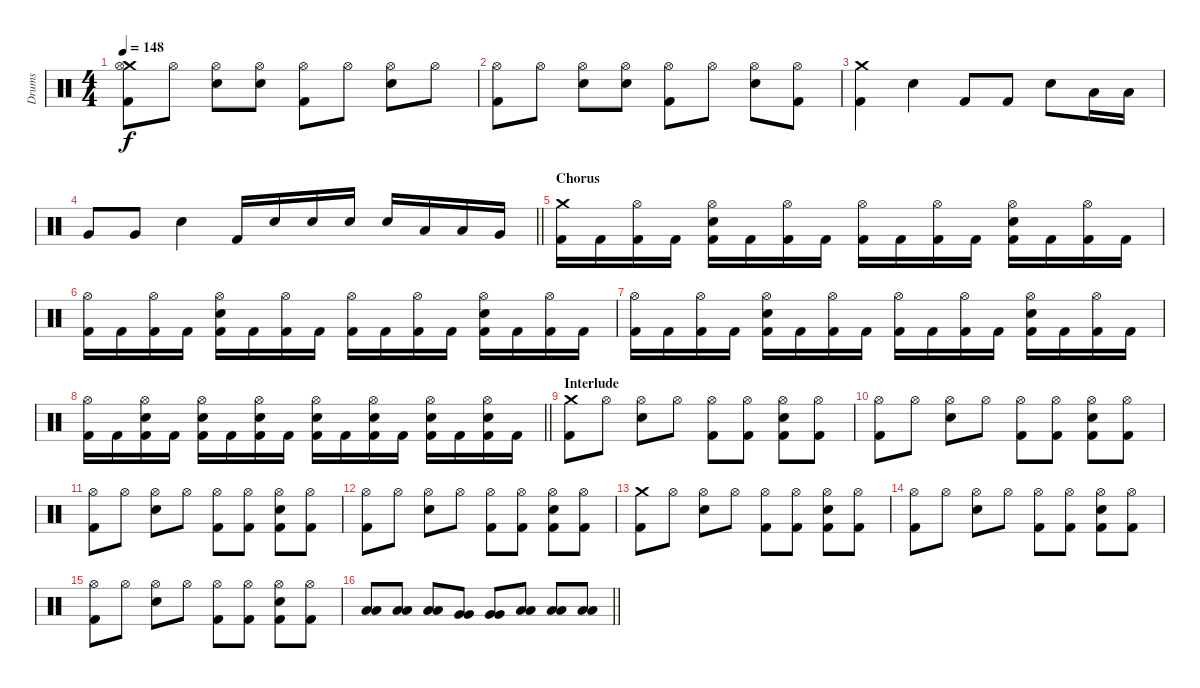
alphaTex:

\track ("Drums" "Drums") {instrument percussion}
\staff {score}
\articulation defaults
\ts (4 4)
\tempo 148
\clef neutral
\ks c
("Crash medium (hit)" "Hi-Hat (open)" "Kick (hit) 2").8{dy f} "Hi-Hat (open)".8 ("Hi-Hat (open)" "Snare (hit) 2").8 ("Hi-Hat (open)" "Snare (hit) 2").8 ("Hi-Hat (open)" "Kick (hit) 2").8 "Hi-Hat (open)".8 ("Hi-Hat (open)" "Snare (hit) 2").8 "Hi-Hat (open)".8 |
("Hi-Hat (open)" "Kick (hit) 2").8 "Hi-Hat (open)".8 ("Hi-Hat (open)" "Snare (hit) 2").8 ("Hi-Hat (open)" "Snare (hit) 2").8 ("Hi-Hat (open)" "Kick (hit) 2").8 "Hi-Hat (open)".8 ("Hi-Hat (open)" "Snare (hit) 2").8 ("Hi-Hat (open)" "Kick (hit) 2").8 |
("Crash medium (hit)" "Kick (hit) 2").4 "Snare (hit) 2".4 "Kick (hit) 2".8 "Kick (hit) 2".8 "Snare (hit) 2".8 "Low Tom (hit)".16 "Low Tom (hit)".16 |
\barLineRight lightlight "Very Low Tom (hit)".8 "Very Low Tom (hit)".8 "Snare (hit) 2".4 "Kick (hit) 2".16 "Snare (hit) 2".16 "Snare (hit) 2".16 "Snare (hit) 2".16 "Snare (hit) 2".16 "Low Tom (hit)".16 "Low Tom (hit)".16 "Very Low Tom (hit)".16
|
\section ("" "Chorus")
("Crash medium (hit)" "Kick (hit) 2").16 "Kick (hit) 2".16 ("Hi-Hat (open)" "Kick (hit) 2").16 "Kick (hit) 2".16 ("Hi-Hat (open)" "Snare (hit) 2" "Kick (hit) 2").16 "Kick (hit) 2".16 ("Hi-Hat (open)" "Kick (hit) 2").16 "Kick (hit) 2".16 ("Hi-Hat (open)" "Kick (hit) 2").16 "Kick (hit) 2".16 ("Hi-Hat (open)" "Kick (hit) 2").16 "Kick (hit) 2".16 ("Hi-Hat (open)" "Snare (hit) 2" "Kick (hit) 2").16 "Kick (hit) 2".16 ("Hi-Hat (open)" "Kick (hit) 2").16 "Kick (hit) 2".16 |
("Hi-Hat (open)" "Kick (hit) 2").16 "Kick (hit) 2".16 ("Hi-Hat (open)" "Kick (hit) 2").16 "Kick (hit) 2".16 ("Hi-Hat (open)" "Snare (hit) 2" "Kick (hit) 2").16 "Kick (hit) 2".16 ("Hi-Hat (open)" "Kick (hit) 2").16 "Kick (hit) 2".16 ("Hi-Hat (open)" "Kick (hit) 2").16 "Kick (hit) 2".16 ("Hi-Hat (open)" "Kick (hit) 2").16 "Kick (hit) 2".16 ("Hi-Hat (open)" "Snare (hit) 2" "Kick (hit) 2").16 "Kick (hit) 2".16 ("Hi-Hat (open)" "Kick (hit) 2").16 "Kick (hit) 2".16 |
("Hi-Hat (open)" "Kick (hit) 2").16 "Kick (hit) 2".16 ("Hi-Hat (open)" "Kick (hit) 2").16 "Kick (hit) 2".16 ("Hi-Hat (open)" "Snare (hit) 2" "Kick (hit) 2").16 "Kick (hit) 2".16 ("Hi-Hat (open)" "Kick (hit) 2").16 "Kick (hit) 2".16 ("Hi-Hat (open)" "Kick (hit) 2").16 "Kick (hit) 2".16 ("Hi-Hat (open)" "Kick (hit) 2").16 "Kick (hit) 2".16 ("Hi-Hat (open)" "Snare (hit) 2" "Kick (hit) 2").16 "Kick (hit) 2".16 ("Hi-Hat (open)" "Kick (hit) 2").16 "Kick (hit) 2".16 |
\barLineRight lightlight
("Hi-Hat (open)" "Kick (hit) 2").16 "Kick (hit) 2".16 ("Hi-Hat (open)" "Snare (hit) 2" "Kick (hit) 2").16 "Kick (hit) 2".16 ("Hi-Hat (open)" "Snare (hit) 2" "Kick (hit) 2").16 "Kick (hit) 2".16 ("Hi-Hat (open)" "Snare (hit) 2" "Kick (hit) 2").16 "Kick (hit) 2".16 ("Hi-Hat (open)" "Snare (hit) 2" "Kick (hit) 2").16 "Kick (hit) 2".16 ("Hi-Hat (open)" "Snare (hit) 2" "Kick (hit) 2").16 "Kick (hit) 2".16 ("Hi-Hat (open)" "Snare (hit) 2" "Kick (hit) 2").16 "Kick (hit) 2".16 ("Hi-Hat (open)" "Snare (hit) 2" "Kick (hit) 2").16 "Kick (hit) 2".16 |
\section ("" "Interlude")
("Crash medium (hit)" "Kick (hit) 2").8 "Hi-Hat (open)".8 ("Hi-Hat (open)" "Snare (hit) 2").8 "Hi-Hat (open)".8 ("Hi-Hat (open)" "Kick (hit) 2").8 ("Hi-Hat (open)" "Kick (hit) 2").8 ("Hi-Hat (open)" "Snare (hit) 2" "Kick (hit) 2").8 ("Hi-Hat (open)" "Kick (hit) 2").8 |
("Hi-Hat (open)" "Kick (hit) 2").8 "Hi-Hat (open)".8 ("Hi-Hat (open)" "Snare (hit) 2").8 "Hi-Hat (open)".8 ("Hi-Hat (open)" "Kick (hit) 2").8 ("Hi-Hat (open)" "Kick (hit) 2").8 ("Hi-Hat (open)" "Snare (hit) 2" "Kick (hit) 2").8 ("Hi-Hat (open)" "Kick (hit) 2").8 |
("Hi-Hat (open)" "Kick (hit) 2").8 "Hi-Hat (open)".8 ("Hi-Hat (open)" "Snare (hit) 2").8 "Hi-Hat (open)".8 ("Hi-Hat (open)" "Kick (hit) 2").8 ("Hi-Hat (open)" "Kick (hit) 2").8 ("Hi-Hat (open)" "Snare (hit) 2" "Kick (hit) 2").8 ("Hi-Hat (open)" "Kick (hit) 2").8 |
("Hi-Hat (open)" "Kick (hit) 2").8 "Hi-Hat (open)".8 ("Hi-Hat (open)" "Snare (hit) 2").8 "Hi-Hat (open)".8 ("Hi-Hat (open)" "Kick (hit) 2").8 ("Hi-Hat (open)" "Kick (hit) 2").8 ("Hi-Hat (open)" "Snare (hit) 2" "Kick (hit) 2").8 ("Hi-Hat (open)" "Kick (hit) 2").8 |
("Crash medium (hit)" "Kick (hit) 2").8 "Hi-Hat (open)".8 ("Hi-Hat (open)" "Snare (hit) 2").8 "Hi-Hat (open)".8 ("Hi-Hat (open)" "Kick (hit) 2").8 ("Hi-Hat (open)" "Kick (hit) 2").8 ("Hi-Hat (open)" "Snare (hit) 2" "Kick (hit) 2").8 ("Hi-Hat (open)" "Kick (hit) 2").8 |
("Hi-Hat (open)" "Kick (hit) 2").8 "Hi-Hat (open)".8 ("Hi-Hat (open)" "Snare (hit) 2").8 "Hi-Hat (open)".8 ("Hi-Hat (open)" "Kick (hit) 2").8 ("Hi-Hat (open)" "Kick (hit) 2").8 ("Hi-Hat (open)" "Snare (hit) 2" "Kick (hit) 2").8 ("Hi-Hat (open)" "Kick (hit) 2").8 |
("Hi-Hat (open)" "Kick (hit) 2").8 "Hi-Hat (open)".8 ("Hi-Hat (open)" "Snare (hit) 2").8 "Hi-Hat (open)".8 ("Hi-Hat (open)" "Kick (hit) 2").8 ("Hi-Hat (open)" "Kick (hit) 2").8 ("Hi-Hat (open)" "Snare (hit) 2" "Kick (hit) 2").8 ("Hi-Hat (open)" "Kick (hit) 2").8 |
\barLineRight lightlight
("Low Tom (hit)" "Low Tom (hit)").8 ("Low Tom (hit)" "Low Tom (hit)").8 ("Low Tom (hit)" "Low Tom (hit)").8 ("Very Low Tom (hit)" "Very Low Tom (hit)").8 ("Very Low Tom (hit)" "Very Low Tom (hit)").8 ("Low Floor Tom (hit)" "Low Floor Tom (hit)").8 ("Low Floor Tom (hit)" "Low Floor Tom (hit)").8 ("Low Floor Tom (hit)" "Low Floor Tom (hit)").8
